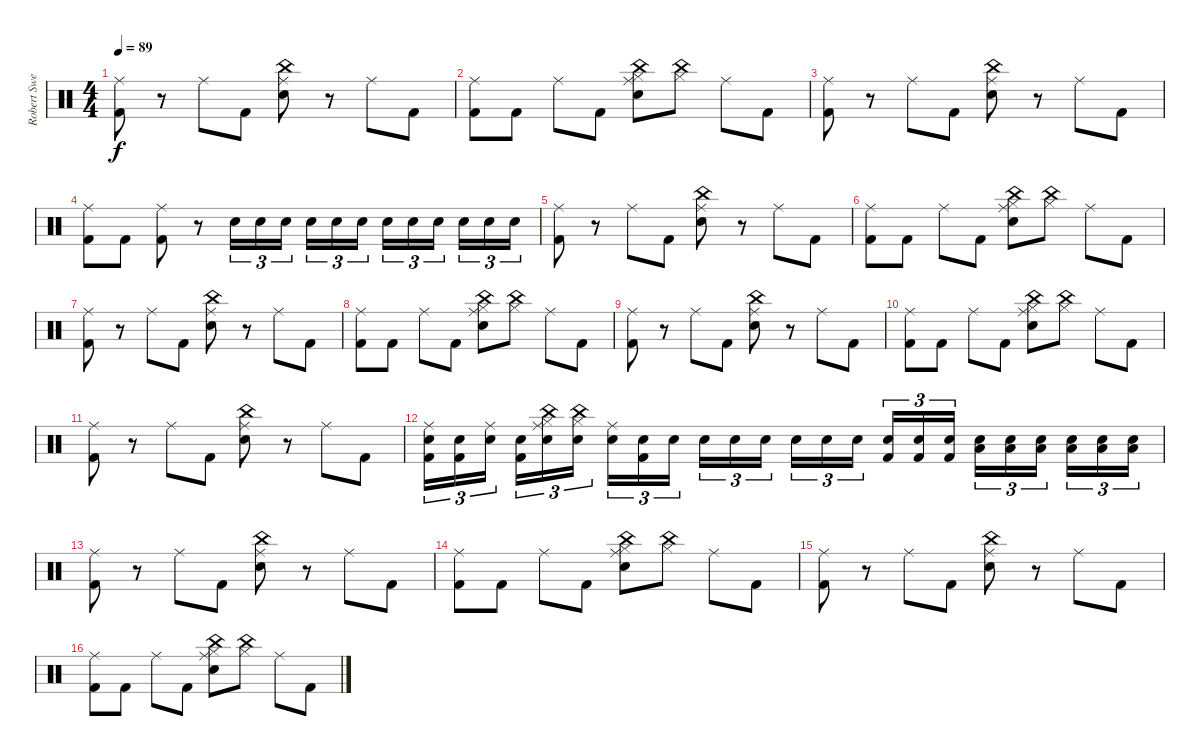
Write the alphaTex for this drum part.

\track ("Robert Sweet" "Robert Swe") {instrument percussion}
\staff {score}
\articulation defaults
\ts (4 4)
\tempo 89
\clef neutral
\ks c
("Ride (middle)" "Kick (hit) 2").8{dy f} r.8 "Ride (middle)".8 "Kick (hit) 2".8 ("Ride (middle)" "China (hit)" "Electric Snare (hit)").8 r.8 "Ride (middle)".8 "Kick (hit) 2".8 |
("Ride (middle)" "Kick (hit) 2").8 "Kick (hit) 2".8 "Ride (middle)".8 "Kick (hit) 2".8 ("Ride (middle)" "China (hit)" "Hi-Hat (closed)" "Electric Snare (hit)").8 ("China (hit)" "Hi-Hat (closed)").8 "Ride (middle)".8 "Kick (hit) 2".8 |
("Ride (middle)" "Kick (hit) 2").8 r.8 "Ride (middle)".8 "Kick (hit) 2".8 ("Ride (middle)" "China (hit)" "Electric Snare (hit)").8 r.8 "Ride (middle)".8 "Kick (hit) 2".8 |
("Ride (middle)" "Kick (hit) 2").8 "Kick (hit) 2".8 ("Ride (middle)" "Kick (hit) 2").8 r.8 "Electric Snare (hit)".16{tu (3 2)} "Electric Snare (hit)".16{tu (3 2)} "Electric Snare (hit)".16{tu (3 2)} "Electric Snare (hit)".16{tu (3 2)} "Electric Snare (hit)".16{tu (3 2)} "Electric Snare (hit)".16{tu (3 2)} "Electric Snare (hit)".16{tu (3 2)} "Electric Snare (hit)".16{tu (3 2)} "Electric Snare (hit)".16{tu (3 2)} "Electric Snare (hit)".16{tu (3 2)} "Electric Snare (hit)".16{tu (3 2)} "Electric Snare (hit)".16{tu (3 2)} |
("Ride (middle)" "Kick (hit) 2").8 r.8 "Ride (middle)".8 "Kick (hit) 2".8 ("Ride (middle)" "China (hit)" "Electric Snare (hit)").8 r.8 "Ride (middle)".8 "Kick (hit) 2".8 |
("Ride (middle)" "Kick (hit) 2").8 "Kick (hit) 2".8 "Ride (middle)".8 "Kick (hit) 2".8 ("Ride (middle)" "China (hit)" "Hi-Hat (closed)" "Electric Snare (hit)").8 ("China (hit)" "Hi-Hat (closed)").8 "Ride (middle)".8 "Kick (hit) 2".8 |
("Ride (middle)" "Kick (hit) 2").8 r.8 "Ride (middle)".8 "Kick (hit) 2".8 ("Ride (middle)" "China (hit)" "Electric Snare (hit)").8 r.8 "Ride (middle)".8 "Kick (hit) 2".8 |
("Ride (middle)" "Kick (hit) 2").8 "Kick (hit) 2".8 "Ride (middle)".8 "Kick (hit) 2".8 ("Ride (middle)" "China (hit)" "Hi-Hat (closed)" "Electric Snare (hit)").8 ("China (hit)" "Hi-Hat (closed)").8 "Ride (middle)".8 "Kick (hit) 2".8 |
("Ride (middle)" "Kick (hit) 2").8 r.8 "Ride (middle)".8 "Kick (hit) 2".8 ("Ride (middle)" "China (hit)" "Electric Snare (hit)").8 r.8 "Ride (middle)".8 "Kick (hit) 2".8 |
("Ride (middle)" "Kick (hit) 2").8 "Kick (hit) 2".8 "Ride (middle)".8 "Kick (hit) 2".8 ("Ride (middle)" "China (hit)" "Hi-Hat (closed)" "Electric Snare (hit)").8 ("China (hit)" "Hi-Hat (closed)").8 "Ride (middle)".8 "Kick (hit) 2".8 |
("Ride (middle)" "Kick (hit) 2").8 r.8 "Ride (middle)".8 "Kick (hit) 2".8 ("Ride (middle)" "China (hit)" "Electric Snare (hit)").8 r.8 "Ride (middle)".8 "Kick (hit) 2".8 |
("Ride (middle)" "Kick (hit) 2" "Electric Snare (hit)").16{tu (3 2)} ("Kick (hit) 2" "Electric Snare (hit)").16{tu (3 2)} ("Ride (middle)" "Electric Snare (hit)").16{tu (3 2)} ("Kick (hit) 2" "Electric Snare (hit)").16{tu (3 2)} ("Ride (middle)" "China (hit)" "Hi-Hat (closed)" "Electric Snare (hit)").16{tu (3 2)} ("China (hit)" "Hi-Hat (closed)" "Electric Snare (hit)").16{tu (3 2)} ("Ride (middle)" "Electric Snare (hit)").16{tu (3 2)} ("Kick (hit) 2" "Electric Snare (hit)").16{tu (3 2)} "Electric Snare (hit)".16{tu (3 2)} "Electric Snare (hit)".16{tu (3 2)} "Electric Snare (hit)".16{tu (3 2)} "Electric Snare (hit)".16{tu (3 2)} "Electric Snare (hit)".16{tu (3 2)} "Electric Snare (hit)".16{tu (3 2)} "Electric Snare (hit)".16{tu (3 2)} ("Kick (hit) 2" "Electric Snare (hit)").16{tu (3 2)} ("Kick (hit) 2" "Electric Snare (hit)").16{tu (3 2)} ("Kick (hit) 2" "Electric Snare (hit)").16{tu (3 2)} ("Low Floor Tom (hit)" "Electric Snare (hit)").16{tu (3 2)} ("Low Floor Tom (hit)" "Electric Snare (hit)").16{tu (3 2)} ("Low Floor Tom (hit)" "Electric Snare (hit)").16{tu (3 2)} ("Low Floor Tom (hit)" "Electric Snare (hit)").16{tu (3 2)} ("Low Floor Tom (hit)" "Electric Snare (hit)").16{tu (3 2)} ("Low Floor Tom (hit)" "Electric Snare (hit)").16{tu (3 2)} |
("Ride (middle)" "Kick (hit) 2").8 r.8 "Ride (middle)".8 "Kick (hit) 2".8 ("Ride (middle)" "China (hit)" "Electric Snare (hit)").8 r.8 "Ride (middle)".8 "Kick (hit) 2".8 |
("Ride (middle)" "Kick (hit) 2").8 "Kick (hit) 2".8 "Ride (middle)".8 "Kick (hit) 2".8 ("Ride (middle)" "China (hit)" "Hi-Hat (closed)" "Electric Snare (hit)").8 ("China (hit)" "Hi-Hat (closed)").8 "Ride (middle)".8 "Kick (hit) 2".8 |
("Ride (middle)" "Kick (hit) 2").8 r.8 "Ride (middle)".8 "Kick (hit) 2".8 ("Ride (middle)" "China (hit)" "Electric Snare (hit)").8 r.8 "Ride (middle)".8 "Kick (hit) 2".8 |
("Ride (middle)" "Kick (hit) 2").8 "Kick (hit) 2".8 "Ride (middle)".8 "Kick (hit) 2".8 ("Ride (middle)" "China (hit)" "Hi-Hat (closed)" "Electric Snare (hit)").8 ("China (hit)" "Hi-Hat (closed)").8 "Ride (middle)".8 "Kick (hit) 2".8
